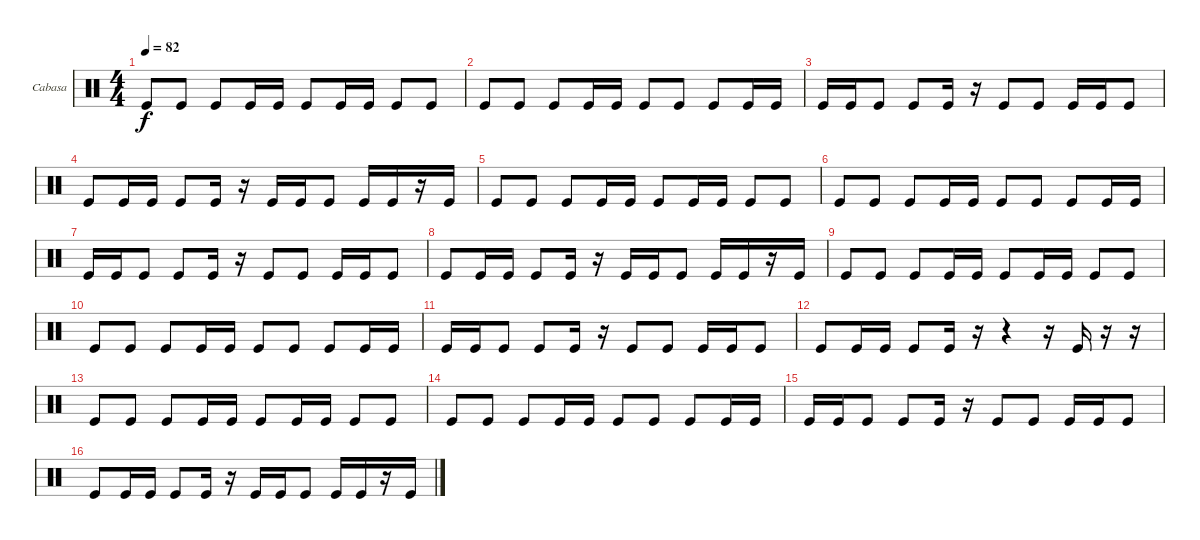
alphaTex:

\bracketExtendMode groupsimilarinstruments
\firstSystemTrackNameOrientation horizontal
\otherSystemsTrackNameOrientation horizontal
\track ("Cabasa" "Cabasa") {instrument percussion}
\staff {score}
\articulation defaults
\ts (4 4)
\tempo 82
\clef neutral
\ks c "Kick (hit)".8{dy f} "Kick (hit)".8 "Kick (hit)".8 "Kick (hit)".16 "Kick (hit)".16 "Kick (hit)".8 "Kick (hit)".16 "Kick (hit)".16 "Kick (hit)".8 "Kick (hit)".8
|
"Kick (hit)".8 "Kick (hit)".8 "Kick (hit)".8 "Kick (hit)".16 "Kick (hit)".16 "Kick (hit)".8 "Kick (hit)".8 "Kick (hit)".8 "Kick (hit)".16 "Kick (hit)".16 |
"Kick (hit)".16 "Kick (hit)".16 "Kick (hit)".8 "Kick (hit)".8 "Kick (hit)".16 r.16 "Kick (hit)".8 "Kick (hit)".8 "Kick (hit)".16 "Kick (hit)".16 "Kick (hit)".8 |
"Kick (hit)".8 "Kick (hit)".16 "Kick (hit)".16 "Kick (hit)".8 "Kick (hit)".16 r.16 "Kick (hit)".16 "Kick (hit)".16 "Kick (hit)".8 "Kick (hit)".16 "Kick (hit)".16 r.16 "Kick (hit)".16 |
"Kick (hit)".8 "Kick (hit)".8 "Kick (hit)".8 "Kick (hit)".16 "Kick (hit)".16 "Kick (hit)".8 "Kick (hit)".16 "Kick (hit)".16 "Kick (hit)".8 "Kick (hit)".8 |
"Kick (hit)".8 "Kick (hit)".8 "Kick (hit)".8 "Kick (hit)".16 "Kick (hit)".16 "Kick (hit)".8 "Kick (hit)".8 "Kick (hit)".8 "Kick (hit)".16 "Kick (hit)".16 |
"Kick (hit)".16 "Kick (hit)".16 "Kick (hit)".8 "Kick (hit)".8 "Kick (hit)".16 r.16 "Kick (hit)".8 "Kick (hit)".8 "Kick (hit)".16 "Kick (hit)".16 "Kick (hit)".8 |
"Kick (hit)".8 "Kick (hit)".16 "Kick (hit)".16 "Kick (hit)".8 "Kick (hit)".16 r.16 "Kick (hit)".16 "Kick (hit)".16 "Kick (hit)".8 "Kick (hit)".16 "Kick (hit)".16 r.16 "Kick (hit)".16 |
"Kick (hit)".8 "Kick (hit)".8 "Kick (hit)".8 "Kick (hit)".16 "Kick (hit)".16 "Kick (hit)".8 "Kick (hit)".16 "Kick (hit)".16 "Kick (hit)".8 "Kick (hit)".8 |
"Kick (hit)".8 "Kick (hit)".8 "Kick (hit)".8 "Kick (hit)".16 "Kick (hit)".16 "Kick (hit)".8 "Kick (hit)".8 "Kick (hit)".8 "Kick (hit)".16 "Kick (hit)".16 |
"Kick (hit)".16 "Kick (hit)".16 "Kick (hit)".8 "Kick (hit)".8 "Kick (hit)".16 r.16 "Kick (hit)".8 "Kick (hit)".8 "Kick (hit)".16 "Kick (hit)".16 "Kick (hit)".8 |
"Kick (hit)".8 "Kick (hit)".16 "Kick (hit)".16 "Kick (hit)".8 "Kick (hit)".16 r.16 r.4 r.16 "Kick (hit)".16 r.16 r.16 |
"Kick (hit)".8 "Kick (hit)".8 "Kick (hit)".8 "Kick (hit)".16 "Kick (hit)".16 "Kick (hit)".8 "Kick (hit)".16 "Kick (hit)".16 "Kick (hit)".8 "Kick (hit)".8 |
"Kick (hit)".8 "Kick (hit)".8 "Kick (hit)".8 "Kick (hit)".16 "Kick (hit)".16 "Kick (hit)".8 "Kick (hit)".8 "Kick (hit)".8 "Kick (hit)".16 "Kick (hit)".16 |
"Kick (hit)".16 "Kick (hit)".16 "Kick (hit)".8 "Kick (hit)".8 "Kick (hit)".16 r.16 "Kick (hit)".8 "Kick (hit)".8 "Kick (hit)".16 "Kick (hit)".16 "Kick (hit)".8 |
"Kick (hit)".8 "Kick (hit)".16 "Kick (hit)".16 "Kick (hit)".8 "Kick (hit)".16 r.16 "Kick (hit)".16 "Kick (hit)".16 "Kick (hit)".8 "Kick (hit)".16 "Kick (hit)".16 r.16 "Kick (hit)".16
